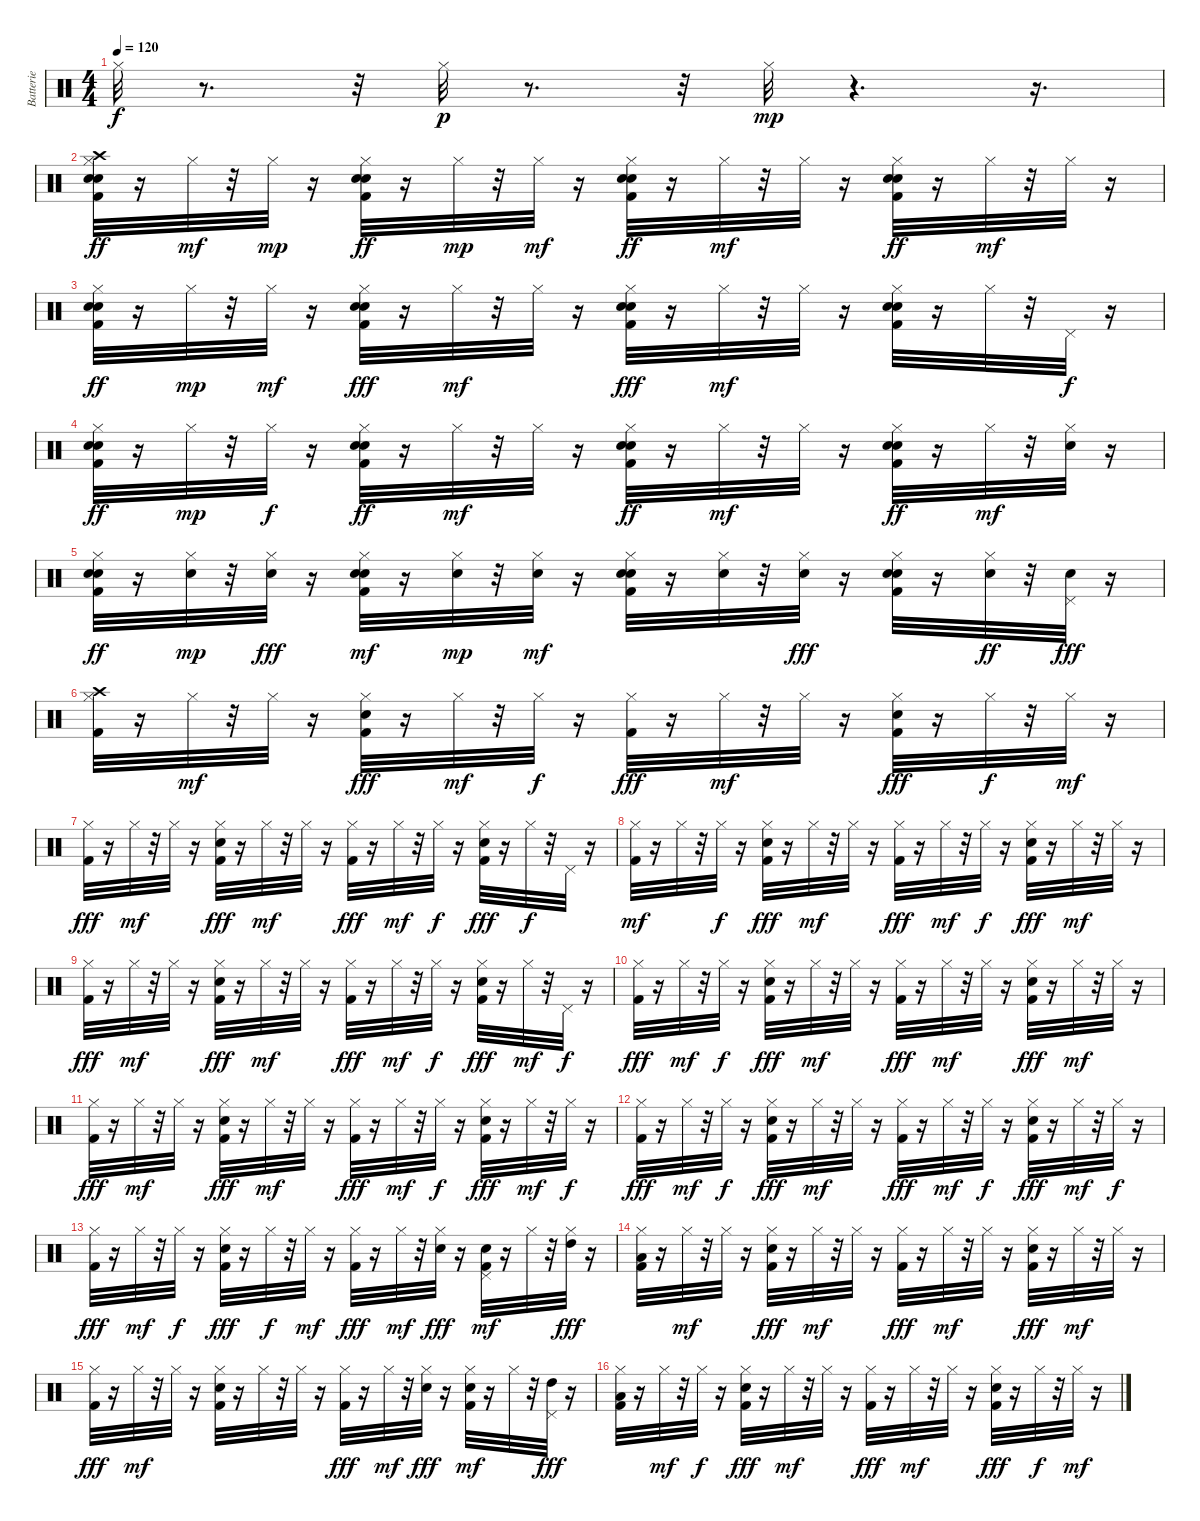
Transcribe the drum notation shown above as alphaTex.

\track ("Batterie" "Batterie") {instrument percussion}
\staff {score}
\articulation defaults
\ts (4 4)
\tempo 120
\clef neutral
\ks c "Hi-Hat (closed)".32{dy f}
r.8{d} r.32 "Hi-Hat (closed)".32{dy p} r.8{d} r.32 "Hi-Hat (closed)".32{dy mp} r.4{d} r.16{d} |
("Kick (hit) 2" "Snare (hit) 2" "Hi-Hat (closed)" "Crash high (hit)" "Hand Clap (hit)").32{dy ff} r.16 "Hi-Hat (closed)".32{dy mf} r.32 "Hi-Hat (closed)".32{dy mp} r.16 ("Kick (hit) 2" "Snare (hit) 2" "Hi-Hat (closed)" "Hand Clap (hit)").32{dy ff} r.16 "Hi-Hat (closed)".32{dy mp} r.32 "Hi-Hat (closed)".32{dy mf} r.16 ("Kick (hit) 2" "Snare (hit) 2" "Hi-Hat (closed)" "Hand Clap (hit)").32{dy ff} r.16 "Hi-Hat (closed)".32{dy mf} r.32 "Hi-Hat (closed)".32 r.16 ("Kick (hit) 2" "Snare (hit) 2" "Hi-Hat (closed)" "Hand Clap (hit)").32{dy ff} r.16 "Hi-Hat (closed)".32{dy mf} r.32 "Hi-Hat (closed)".32 r.16 |
("Kick (hit) 2" "Snare (hit) 2" "Hi-Hat (closed)" "Hand Clap (hit)").32{dy ff} r.16 "Hi-Hat (closed)".32{dy mp} r.32 "Hi-Hat (closed)".32{dy mf} r.16 ("Kick (hit) 2" "Snare (hit) 2" "Hi-Hat (closed)" "Hand Clap (hit)").32{dy fff} r.16 "Hi-Hat (closed)".32{dy mf} r.32 "Hi-Hat (closed)".32 r.16 ("Kick (hit) 2" "Snare (hit) 2" "Hi-Hat (closed)" "Hand Clap (hit)").32{dy fff} r.16 "Hi-Hat (closed)".32{dy mf} r.32 "Hi-Hat (closed)".32 r.16 ("Kick (hit) 2" "Snare (hit) 2" "Hi-Hat (closed)" "Hand Clap (hit)").32 r.16 "Hi-Hat (closed)".32 r.32 "Pedal Hi-Hat (hit)".32{dy f} r.16 |
("Kick (hit) 2" "Snare (hit) 2" "Hi-Hat (closed)" "Hand Clap (hit)").32{dy ff} r.16 "Hi-Hat (closed)".32{dy mp} r.32 "Hi-Hat (closed)".32{dy f} r.16 ("Kick (hit) 2" "Snare (hit) 2" "Hi-Hat (closed)" "Hand Clap (hit)").32{dy ff} r.16 "Hi-Hat (closed)".32{dy mf} r.32 "Hi-Hat (closed)".32 r.16 ("Kick (hit) 2" "Snare (hit) 2" "Hi-Hat (closed)" "Hand Clap (hit)").32{dy ff} r.16 "Hi-Hat (closed)".32{dy mf} r.32 "Hi-Hat (closed)".32 r.16 ("Kick (hit) 2" "Snare (hit) 2" "Hi-Hat (closed)" "Hand Clap (hit)").32{dy ff} r.16 "Hi-Hat (closed)".32{dy mf} r.32 ("Snare (hit) 2" "Hi-Hat (closed)").32 r.16 |
("Kick (hit) 2" "Snare (hit) 2" "Hi-Hat (closed)" "Hand Clap (hit)").32{dy ff} r.16 ("Snare (hit) 2" "Hi-Hat (closed)").32{dy mp} r.32 ("Snare (hit) 2" "Hi-Hat (closed)").32{dy fff} r.16 ("Kick (hit) 2" "Snare (hit) 2" "Hi-Hat (closed)" "Hand Clap (hit)").32{dy mf} r.16 ("Snare (hit) 2" "Hi-Hat (closed)").32{dy mp} r.32 ("Snare (hit) 2" "Hi-Hat (closed)").32{dy mf} r.16 ("Kick (hit) 2" "Snare (hit) 2" "Hi-Hat (closed)" "Hand Clap (hit)").32 r.16 ("Snare (hit) 2" "Hi-Hat (closed)").32 r.32 ("Snare (hit) 2" "Hi-Hat (closed)").32{dy fff} r.16 ("Kick (hit) 2" "Snare (hit) 2" "Hi-Hat (closed)" "Hand Clap (hit)").32 r.16 ("Snare (hit) 2" "Hi-Hat (closed)").32{dy ff} r.32 ("Snare (hit) 2" "Pedal Hi-Hat (hit)").32{dy fff} r.16 |
("Kick (hit) 2" "Hi-Hat (closed)" "Crash high (hit)").32 r.16 "Hi-Hat (closed)".32{dy mf} r.32 "Hi-Hat (closed)".32 r.16 ("Kick (hit) 2" "Snare (hit) 2" "Hi-Hat (closed)").32{dy fff} r.16 "Hi-Hat (closed)".32{dy mf} r.32 "Hi-Hat (closed)".32{dy f} r.16 ("Kick (hit) 2" "Hi-Hat (closed)").32{dy fff} r.16 "Hi-Hat (closed)".32{dy mf} r.32 "Hi-Hat (closed)".32 r.16 ("Kick (hit) 2" "Snare (hit) 2" "Hi-Hat (closed)").32{dy fff} r.16 "Hi-Hat (closed)".32{dy f} r.32 "Hi-Hat (closed)".32{dy mf} r.16 |
("Kick (hit) 2" "Hi-Hat (closed)").32{dy fff} r.16 "Hi-Hat (closed)".32{dy mf} r.32 "Hi-Hat (closed)".32 r.16 ("Kick (hit) 2" "Snare (hit) 2" "Hi-Hat (closed)").32{dy fff} r.16 "Hi-Hat (closed)".32{dy mf} r.32 "Hi-Hat (closed)".32 r.16 ("Kick (hit) 2" "Hi-Hat (closed)").32{dy fff} r.16 "Hi-Hat (closed)".32{dy mf} r.32 "Hi-Hat (closed)".32{dy f} r.16 ("Kick (hit) 2" "Snare (hit) 2" "Hi-Hat (closed)").32{dy fff} r.16 "Hi-Hat (closed)".32{dy f} r.32 "Pedal Hi-Hat (hit)".32 r.16 |
("Kick (hit) 2" "Hi-Hat (closed)").32{dy mf} r.16 "Hi-Hat (closed)".32 r.32 "Hi-Hat (closed)".32{dy f} r.16 ("Kick (hit) 2" "Snare (hit) 2" "Hi-Hat (closed)").32{dy fff} r.16 "Hi-Hat (closed)".32{dy mf} r.32 "Hi-Hat (closed)".32 r.16 ("Kick (hit) 2" "Hi-Hat (closed)").32{dy fff} r.16 "Hi-Hat (closed)".32{dy mf} r.32 "Hi-Hat (closed)".32{dy f} r.16 ("Kick (hit) 2" "Snare (hit) 2" "Hi-Hat (closed)").32{dy fff} r.16 "Hi-Hat (closed)".32{dy mf} r.32 "Hi-Hat (closed)".32 r.16 |
("Kick (hit) 2" "Hi-Hat (closed)").32{dy fff} r.16 "Hi-Hat (closed)".32{dy mf} r.32 "Hi-Hat (closed)".32 r.16 ("Kick (hit) 2" "Snare (hit) 2" "Hi-Hat (closed)").32{dy fff} r.16 "Hi-Hat (closed)".32{dy mf} r.32 "Hi-Hat (closed)".32 r.16 ("Kick (hit) 2" "Hi-Hat (closed)").32{dy fff} r.16 "Hi-Hat (closed)".32{dy mf} r.32 "Hi-Hat (closed)".32{dy f} r.16 ("Kick (hit) 2" "Snare (hit) 2" "Hi-Hat (closed)").32{dy fff} r.16 "Hi-Hat (closed)".32{dy mf} r.32 "Pedal Hi-Hat (hit)".32{dy f} r.16 |
("Kick (hit) 2" "Hi-Hat (closed)").32{dy fff} r.16 "Hi-Hat (closed)".32{dy mf} r.32 "Hi-Hat (closed)".32{dy f} r.16 ("Kick (hit) 2" "Snare (hit) 2" "Hi-Hat (closed)").32{dy fff} r.16 "Hi-Hat (closed)".32{dy mf} r.32 "Hi-Hat (closed)".32 r.16 ("Kick (hit) 2" "Hi-Hat (closed)").32{dy fff} r.16 "Hi-Hat (closed)".32{dy mf} r.32 "Hi-Hat (closed)".32 r.16 ("Kick (hit) 2" "Snare (hit) 2" "Hi-Hat (closed)").32{dy fff} r.16 "Hi-Hat (closed)".32{dy mf} r.32 "Hi-Hat (closed)".32 r.16 |
("Kick (hit) 2" "Hi-Hat (closed)").32{dy fff} r.16 "Hi-Hat (closed)".32{dy mf} r.32 "Hi-Hat (closed)".32 r.16 ("Kick (hit) 2" "Snare (hit) 2" "Hi-Hat (closed)").32{dy fff} r.16 "Hi-Hat (closed)".32{dy mf} r.32 "Hi-Hat (closed)".32 r.16 ("Kick (hit) 2" "Hi-Hat (closed)").32{dy fff} r.16 "Hi-Hat (closed)".32{dy mf} r.32 "Hi-Hat (closed)".32{dy f} r.16 ("Kick (hit) 2" "Snare (hit) 2" "Hi-Hat (closed)").32{dy fff} r.16 "Hi-Hat (closed)".32{dy mf} r.32 "Hi-Hat (closed)".32{dy f} r.16 |
("Kick (hit) 2" "Hi-Hat (closed)").32{dy fff} r.16 "Hi-Hat (closed)".32{dy mf} r.32 "Hi-Hat (closed)".32{dy f} r.16 ("Kick (hit) 2" "Snare (hit) 2" "Hi-Hat (closed)").32{dy fff} r.16 "Hi-Hat (closed)".32{dy mf} r.32 "Hi-Hat (closed)".32 r.16 ("Kick (hit) 2" "Hi-Hat (closed)").32{dy fff} r.16 "Hi-Hat (closed)".32{dy mf} r.32 "Hi-Hat (closed)".32{dy f} r.16 ("Kick (hit) 2" "Snare (hit) 2" "Hi-Hat (closed)").32{dy fff} r.16 "Hi-Hat (closed)".32{dy mf} r.32 "Hi-Hat (closed)".32{dy f} r.16 |
("Kick (hit) 2" "Hi-Hat (closed)").32{dy fff} r.16 "Hi-Hat (closed)".32{dy mf} r.32 "Hi-Hat (closed)".32{dy f} r.16 ("Kick (hit) 2" "Snare (hit) 2" "Hi-Hat (closed)").32{dy fff} r.16 "Hi-Hat (closed)".32{dy f} r.32 "Hi-Hat (closed)".32{dy mf} r.16 ("Kick (hit) 2" "Hi-Hat (closed)").32{dy fff} r.16 "Hi-Hat (closed)".32{dy mf} r.32 ("Snare (hit) 2" "Hi-Hat (closed)").32{dy fff} r.16 ("Kick (hit) 2" "Snare (hit) 2" "Pedal Hi-Hat (hit)").32{dy mf} r.16 "Hi-Hat (closed)".32 r.32 ("Hi-Hat (closed)" "High Tom (hit)").32{dy fff} r.16 |
("Kick (hit) 2" "Hi-Hat (closed)" "Low Floor Tom (hit)").32 r.16 "Hi-Hat (closed)".32{dy mf} r.32 "Hi-Hat (closed)".32 r.16 ("Kick (hit) 2" "Snare (hit) 2" "Hi-Hat (closed)").32{dy fff} r.16 "Hi-Hat (closed)".32{dy mf} r.32 "Hi-Hat (closed)".32 r.16 ("Kick (hit) 2" "Hi-Hat (closed)").32{dy fff} r.16 "Hi-Hat (closed)".32{dy mf} r.32 "Hi-Hat (closed)".32 r.16 ("Kick (hit) 2" "Snare (hit) 2" "Hi-Hat (closed)").32{dy fff} r.16 "Hi-Hat (closed)".32{dy mf} r.32 "Hi-Hat (closed)".32 r.16 |
("Kick (hit) 2" "Hi-Hat (closed)").32{dy fff} r.16 "Hi-Hat (closed)".32{dy mf} r.32 "Hi-Hat (closed)".32 r.16 ("Kick (hit) 2" "Snare (hit) 2" "Hi-Hat (closed)").32 r.16 "Hi-Hat (closed)".32 r.32 "Hi-Hat (closed)".32 r.16 ("Kick (hit) 2" "Hi-Hat (closed)").32{dy fff} r.16 "Hi-Hat (closed)".32{dy mf} r.32 ("Snare (hit) 2" "Hi-Hat (closed)").32{dy fff} r.16 ("Kick (hit) 2" "Snare (hit) 2" "Hi-Hat (closed)").32{dy mf} r.16 "Hi-Hat (closed)".32 r.32 ("Pedal Hi-Hat (hit)" "High Tom (hit)").32{dy fff} r.16 |
("Kick (hit) 2" "Hi-Hat (closed)" "Low Floor Tom (hit)").32 r.16 "Hi-Hat (closed)".32{dy mf} r.32 "Hi-Hat (closed)".32{dy f} r.16 ("Kick (hit) 2" "Snare (hit) 2" "Hi-Hat (closed)").32{dy fff} r.16 "Hi-Hat (closed)".32{dy mf} r.32 "Hi-Hat (closed)".32 r.16 ("Kick (hit) 2" "Hi-Hat (closed)").32{dy fff} r.16 "Hi-Hat (closed)".32{dy mf} r.32 "Hi-Hat (closed)".32 r.16 ("Kick (hit) 2" "Snare (hit) 2" "Hi-Hat (closed)").32{dy fff} r.16 "Hi-Hat (closed)".32{dy f} r.32 "Hi-Hat (closed)".32{dy mf} r.16
